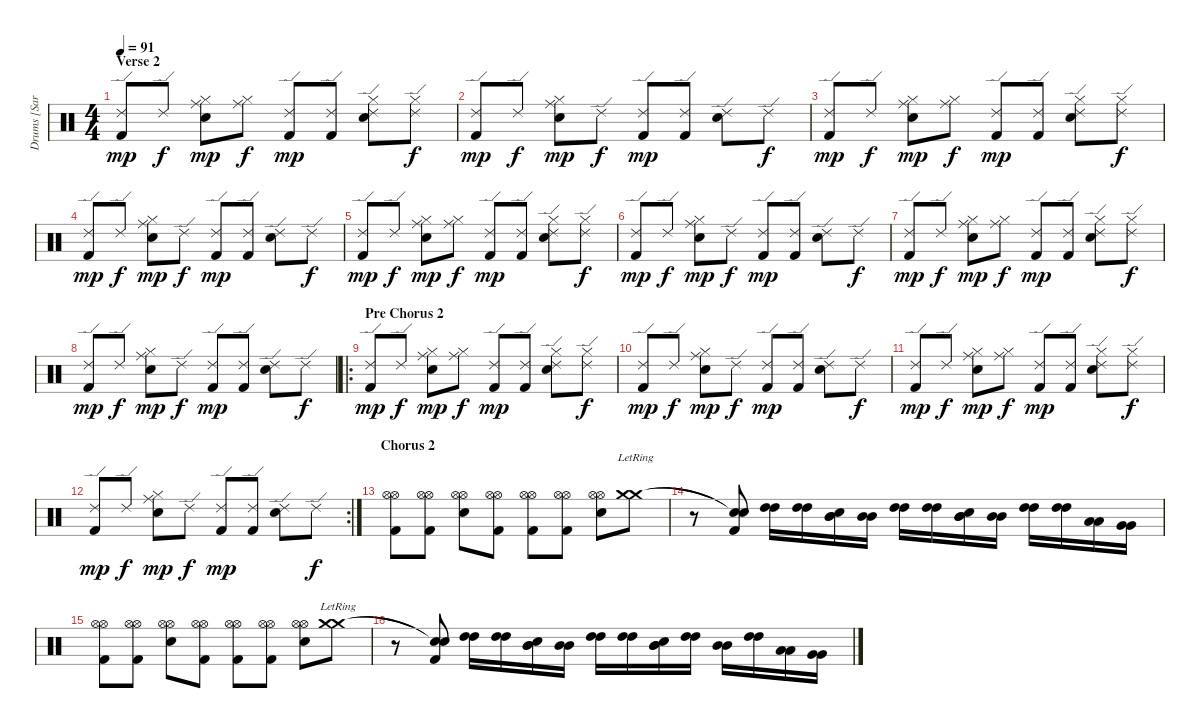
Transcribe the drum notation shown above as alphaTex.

\track ("Drums [Sara Lee Lucas]" "Drums [Sar") {instrument percussion}
\staff {score}
\articulation defaults
\ts (4 4)
\section ("" "Verse 2")
\tempo 91
\clef neutral
\ks c
("Ride (edge) 2" "Kick (hit) 2").8{dy mp} "Ride (edge) 2".8{dy f} ("Ride (middle)" "Hi-Hat (closed)" "Snare (hit) 2").8{dy mp} ("Ride (middle)" "Hi-Hat (closed)").8{dy f} ("Ride (edge) 2" "Kick (hit) 2").8{dy mp} ("Ride (edge) 2" "Kick (hit) 2").8 ("Ride (edge) 2" "Hi-Hat (closed)" "Snare (hit) 2").8 ("Ride (edge) 2" "Hi-Hat (closed)").8{dy f} |
("Ride (edge) 2" "Kick (hit) 2").8{dy mp} "Ride (edge) 2".8{dy f} ("Ride (middle)" "Hi-Hat (closed)" "Snare (hit) 2").8{dy mp} "Ride (edge) 2".8{dy f} ("Ride (edge) 2" "Kick (hit) 2").8{dy mp} ("Ride (edge) 2" "Kick (hit) 2").8 ("Ride (edge) 2" "Snare (hit) 2").8 "Ride (edge) 2".8{dy f} |
("Ride (edge) 2" "Kick (hit) 2").8{dy mp} "Ride (edge) 2".8{dy f} ("Ride (middle)" "Hi-Hat (closed)" "Snare (hit) 2").8{dy mp} ("Ride (middle)" "Hi-Hat (closed)").8{dy f} ("Ride (edge) 2" "Kick (hit) 2").8{dy mp} ("Ride (edge) 2" "Kick (hit) 2").8 ("Ride (edge) 2" "Hi-Hat (closed)" "Snare (hit) 2").8 ("Ride (edge) 2" "Hi-Hat (closed)").8{dy f} |
("Ride (edge) 2" "Kick (hit) 2").8{dy mp} "Ride (edge) 2".8{dy f} ("Ride (middle)" "Hi-Hat (closed)" "Snare (hit) 2").8{dy mp} "Ride (edge) 2".8{dy f} ("Ride (edge) 2" "Kick (hit) 2").8{dy mp} ("Ride (edge) 2" "Kick (hit) 2").8 ("Ride (edge) 2" "Snare (hit) 2").8 "Ride (edge) 2".8{dy f} |
("Ride (edge) 2" "Kick (hit) 2").8{dy mp} "Ride (edge) 2".8{dy f} ("Ride (middle)" "Hi-Hat (closed)" "Snare (hit) 2").8{dy mp} ("Ride (middle)" "Hi-Hat (closed)").8{dy f} ("Ride (edge) 2" "Kick (hit) 2").8{dy mp} ("Ride (edge) 2" "Kick (hit) 2").8 ("Ride (edge) 2" "Hi-Hat (closed)" "Snare (hit) 2").8 ("Ride (edge) 2" "Hi-Hat (closed)").8{dy f} |
("Ride (edge) 2" "Kick (hit) 2").8{dy mp} "Ride (edge) 2".8{dy f} ("Ride (middle)" "Hi-Hat (closed)" "Snare (hit) 2").8{dy mp} "Ride (edge) 2".8{dy f} ("Ride (edge) 2" "Kick (hit) 2").8{dy mp} ("Ride (edge) 2" "Kick (hit) 2").8 ("Ride (edge) 2" "Snare (hit) 2").8 "Ride (edge) 2".8{dy f} |
("Ride (edge) 2" "Kick (hit) 2").8{dy mp} "Ride (edge) 2".8{dy f} ("Ride (middle)" "Hi-Hat (closed)" "Snare (hit) 2").8{dy mp} ("Ride (middle)" "Hi-Hat (closed)").8{dy f} ("Ride (edge) 2" "Kick (hit) 2").8{dy mp} ("Ride (edge) 2" "Kick (hit) 2").8 ("Ride (edge) 2" "Hi-Hat (closed)" "Snare (hit) 2").8 ("Ride (edge) 2" "Hi-Hat (closed)").8{dy f} |
("Ride (edge) 2" "Kick (hit) 2").8{dy mp} "Ride (edge) 2".8{dy f} ("Ride (middle)" "Hi-Hat (closed)" "Snare (hit) 2").8{dy mp} "Ride (edge) 2".8{dy f} ("Ride (edge) 2" "Kick (hit) 2").8{dy mp} ("Ride (edge) 2" "Kick (hit) 2").8 ("Ride (edge) 2" "Snare (hit) 2").8 "Ride (edge) 2".8{dy f} |
\ro
\section ("" "Pre Chorus 2")
("Ride (edge) 2" "Kick (hit) 2").8{dy mp} "Ride (edge) 2".8{dy f} ("Ride (middle)" "Hi-Hat (closed)" "Snare (hit) 2").8{dy mp} ("Ride (middle)" "Hi-Hat (closed)").8{dy f} ("Ride (edge) 2" "Kick (hit) 2").8{dy mp} ("Ride (edge) 2" "Kick (hit) 2").8 ("Ride (edge) 2" "Hi-Hat (closed)" "Snare (hit) 2").8 ("Ride (edge) 2" "Hi-Hat (closed)").8{dy f} |
("Ride (edge) 2" "Kick (hit) 2").8{dy mp} "Ride (edge) 2".8{dy f} ("Ride (middle)" "Hi-Hat (closed)" "Snare (hit) 2").8{dy mp} "Ride (edge) 2".8{dy f} ("Ride (edge) 2" "Kick (hit) 2").8{dy mp} ("Ride (edge) 2" "Kick (hit) 2").8 ("Ride (edge) 2" "Snare (hit) 2").8 "Ride (edge) 2".8{dy f} |
("Ride (edge) 2" "Kick (hit) 2").8{dy mp} "Ride (edge) 2".8{dy f} ("Ride (middle)" "Hi-Hat (closed)" "Snare (hit) 2").8{dy mp} ("Ride (middle)" "Hi-Hat (closed)").8{dy f} ("Ride (edge) 2" "Kick (hit) 2").8{dy mp} ("Ride (edge) 2" "Kick (hit) 2").8 ("Ride (edge) 2" "Hi-Hat (closed)" "Snare (hit) 2").8 ("Ride (edge) 2" "Hi-Hat (closed)").8{dy f} |
\rc 2
("Ride (edge) 2" "Kick (hit) 2").8{dy mp} "Ride (edge) 2".8{dy f} ("Ride (middle)" "Hi-Hat (closed)" "Snare (hit) 2").8{dy mp} "Ride (edge) 2".8{dy f} ("Ride (edge) 2" "Kick (hit) 2").8{dy mp} ("Ride (edge) 2" "Kick (hit) 2").8 ("Ride (edge) 2" "Snare (hit) 2").8 "Ride (edge) 2".8{dy f} |
\section ("" "Chorus 2")
("Hi-Hat (open)" "Hi-Hat (open)" "Kick (hit) 2").8 ("Hi-Hat (open)" "Hi-Hat (open)" "Kick (hit) 2").8 ("Hi-Hat (open)" "Hi-Hat (open)" "Snare (hit) 2").8 ("Hi-Hat (open)" "Hi-Hat (open)" "Kick (hit) 2").8 ("Hi-Hat (open)" "Hi-Hat (open)" "Kick (hit) 2").8 ("Hi-Hat (open)" "Hi-Hat (open)" "Kick (hit) 2").8 ("Hi-Hat (open)" "Hi-Hat (open)" "Snare (hit) 2").8 ("Crash medium (hit)"{lr} "Crash medium (hit)"{lr}).8 |
r.8 ("Snare (hit)"{t} "Snare (hit)"{t} "Kick (hit) 2").8 ("High Tom (hit)" "High Tom (hit)").16 ("High Tom (hit)" "High Tom (hit)").16 ("Mid Tom (hit)" "Mid Tom (hit)" "Snare (hit) 2").16 ("Mid Tom (hit)" "Mid Tom (hit)").16 ("High Tom (hit)" "High Tom (hit)").16 ("High Tom (hit)" "High Tom (hit)").16 ("Mid Tom (hit)" "Mid Tom (hit)" "Snare (hit) 2").16 ("Mid Tom (hit)" "Mid Tom (hit)").16 ("High Tom (hit)" "High Tom (hit)").16 ("High Tom (hit)" "High Tom (hit)").16 ("Low Tom (hit)" "Low Tom (hit)").16 ("Very Low Tom (hit)" "Very Low Tom (hit)").16 |
("Hi-Hat (open)" "Hi-Hat (open)" "Kick (hit) 2").8 ("Hi-Hat (open)" "Hi-Hat (open)" "Kick (hit) 2").8 ("Hi-Hat (open)" "Hi-Hat (open)" "Snare (hit) 2").8 ("Hi-Hat (open)" "Hi-Hat (open)" "Kick (hit) 2").8 ("Hi-Hat (open)" "Hi-Hat (open)" "Kick (hit) 2").8 ("Hi-Hat (open)" "Hi-Hat (open)" "Kick (hit) 2").8 ("Hi-Hat (open)" "Hi-Hat (open)" "Snare (hit) 2").8 ("Crash medium (hit)"{lr} "Crash medium (hit)"{lr}).8 |
r.8 ("Snare (hit)"{t} "Snare (hit)"{t} "Kick (hit) 2").8 ("High Tom (hit)" "High Tom (hit)").16 ("High Tom (hit)" "High Tom (hit)").16 ("Mid Tom (hit)" "Mid Tom (hit)" "Snare (hit) 2").16 ("Mid Tom (hit)" "Mid Tom (hit)").16 ("High Tom (hit)" "High Tom (hit)").16 ("High Tom (hit)" "High Tom (hit)").16 ("Mid Tom (hit)" "Mid Tom (hit)" "Snare (hit) 2").16 ("High Tom (hit)" "High Tom (hit)").16 ("Mid Tom (hit)" "Mid Tom (hit)").16 ("High Tom (hit)" "High Tom (hit)").16 ("Low Tom (hit)" "Low Tom (hit)").16 ("Very Low Tom (hit)" "Very Low Tom (hit)").16
